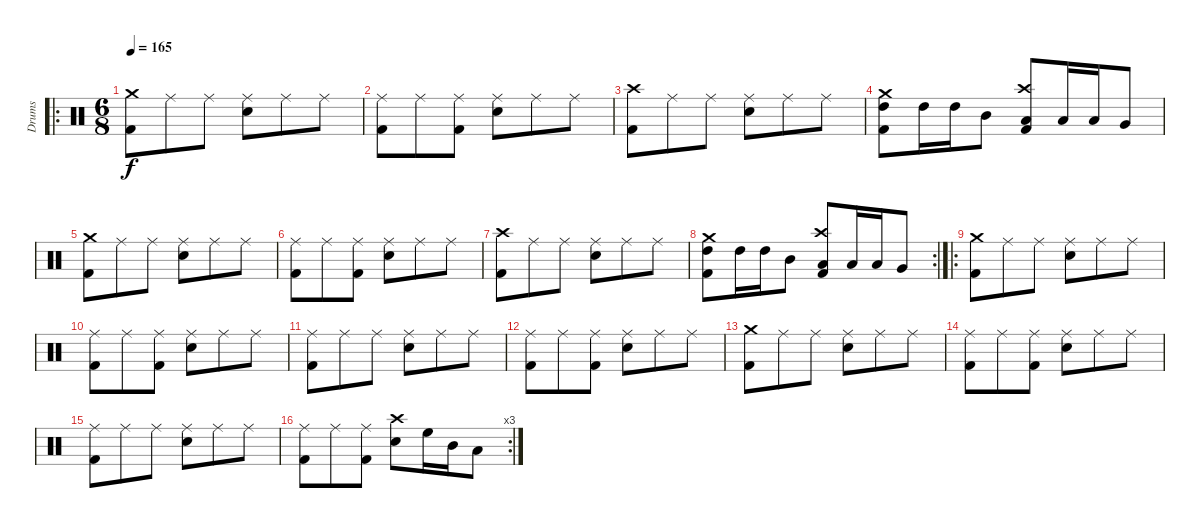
\track ("Drums" "Drums") {instrument percussion}
\staff {score}
\articulation defaults
\ro
\ts (6 8)
\tempo 165
\clef neutral
\ks c
("Crash medium (hit)" "Kick (hit) 2").8{dy f} "Ride (middle)".8 "Ride (middle)".8 ("Ride (middle)" "Snare (hit) 2").8 "Ride (middle)".8 "Ride (middle)".8 |
("Ride (middle)" "Kick (hit) 2").8 "Ride (middle)".8 ("Ride (middle)" "Kick (hit) 2").8 ("Ride (middle)" "Snare (hit) 2").8 "Ride (middle)".8 "Ride (middle)".8 |
("Crash high (hit)" "Kick (hit) 2").8 "Ride (middle)".8 "Ride (middle)".8 ("Ride (middle)" "Snare (hit) 2").8 "Ride (middle)".8 "Ride (middle)".8 |
("Crash medium (hit)" "High Tom (hit)" "Kick (hit) 2").8 "High Tom (hit)".16 "High Tom (hit)".16 "Mid Tom (hit)".8 ("Crash high (hit)" "Low Tom (hit)" "Kick (hit) 2").8 "Low Tom (hit)".16 "Low Tom (hit)".16 "Very Low Tom (hit)".8 |
("Crash medium (hit)" "Kick (hit) 2").8 "Ride (middle)".8 "Ride (middle)".8 ("Ride (middle)" "Snare (hit) 2").8 "Ride (middle)".8 "Ride (middle)".8 |
("Ride (middle)" "Kick (hit) 2").8 "Ride (middle)".8 ("Ride (middle)" "Kick (hit) 2").8 ("Ride (middle)" "Snare (hit) 2").8 "Ride (middle)".8 "Ride (middle)".8 |
("Crash high (hit)" "Kick (hit) 2").8 "Ride (middle)".8 "Ride (middle)".8 ("Ride (middle)" "Snare (hit) 2").8 "Ride (middle)".8 "Ride (middle)".8 |
\rc 2
("Crash medium (hit)" "High Tom (hit)" "Kick (hit) 2").8 "High Tom (hit)".16 "High Tom (hit)".16 "Mid Tom (hit)".8 ("Crash high (hit)" "Low Tom (hit)" "Kick (hit) 2").8 "Low Tom (hit)".16 "Low Tom (hit)".16 "Very Low Tom (hit)".8 |
\ro
("Crash medium (hit)" "Kick (hit) 2").8 "Ride (middle)".8 "Ride (middle)".8 ("Ride (middle)" "Snare (hit) 2").8 "Ride (middle)".8 "Ride (middle)".8 |
("Ride (middle)" "Kick (hit) 2").8 "Ride (middle)".8 ("Ride (middle)" "Kick (hit) 2").8 ("Ride (middle)" "Snare (hit) 2").8 "Ride (middle)".8 "Ride (middle)".8 |
("Ride (middle)" "Kick (hit) 2").8 "Ride (middle)".8 "Ride (middle)".8 ("Ride (middle)" "Snare (hit) 2").8 "Ride (middle)".8 "Ride (middle)".8 |
("Ride (middle)" "Kick (hit) 2").8 "Ride (middle)".8 ("Ride (middle)" "Kick (hit) 2").8 ("Ride (middle)" "Snare (hit) 2").8 "Ride (middle)".8 "Ride (middle)".8 |
("Crash medium (hit)" "Kick (hit) 2").8 "Ride (middle)".8 "Ride (middle)".8 ("Ride (middle)" "Snare (hit) 2").8 "Ride (middle)".8 "Ride (middle)".8 |
("Ride (middle)" "Kick (hit) 2").8 "Ride (middle)".8 ("Ride (middle)" "Kick (hit) 2").8 ("Ride (middle)" "Snare (hit) 2").8 "Ride (middle)".8 "Ride (middle)".8 |
("Ride (middle)" "Kick (hit) 2").8 "Ride (middle)".8 "Ride (middle)".8 ("Ride (middle)" "Snare (hit) 2").8 "Ride (middle)".8 "Ride (middle)".8 |
\rc 3
("Ride (middle)" "Kick (hit) 2").8 "Ride (middle)".8 ("Ride (middle)" "Kick (hit) 2").8 ("Crash high (hit)" "Snare (hit) 2").8 "High Floor Tom (hit)".16 "Mid Tom (hit)".16 "Low Tom (hit)".8
